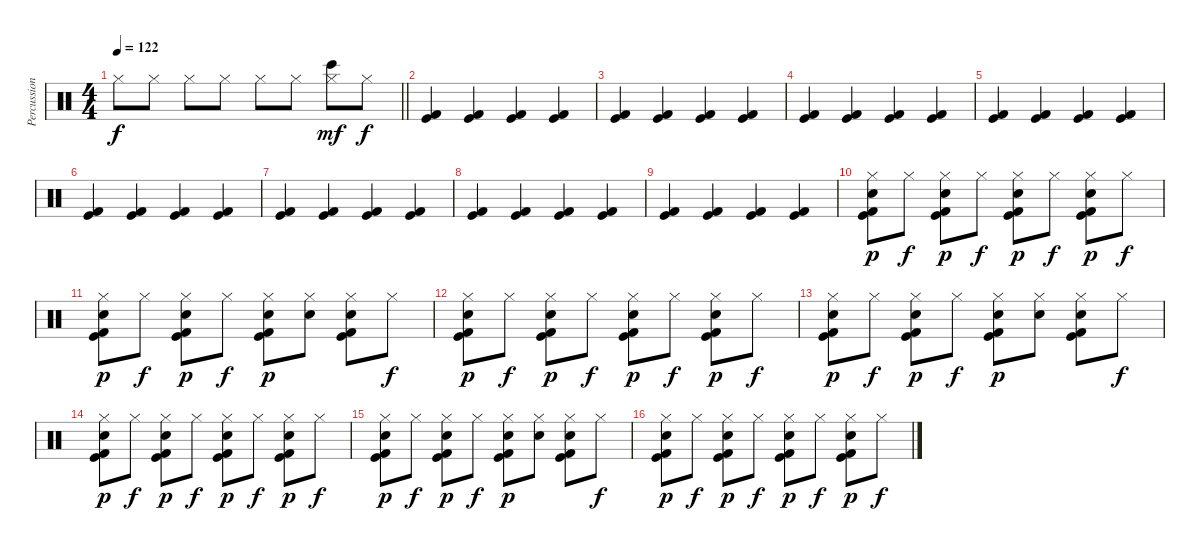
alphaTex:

\track ("Percussion" "Percussion") {instrument percussion}
\staff {score}
\articulation defaults
\ts (4 4)
\tempo 122
\clef neutral
\barLineRight lightlight
\ks c "Hi-Hat (closed)".8{dy f} "Hi-Hat (closed)".8 "Hi-Hat (closed)".8 "Hi-Hat (closed)".8 "Hi-Hat (closed)".8 "Hi-Hat (closed)".8
("Hi-Hat (closed)" "Bongo High (hit)").8{dy mf} "Hi-Hat (closed)".8{dy f} |
\section ("" "")
("Kick (hit)" "Kick (hit) 2").4{volume 7} ("Kick (hit)" "Kick (hit) 2").4 ("Kick (hit)" "Kick (hit) 2").4 ("Kick (hit)" "Kick (hit) 2").4 |
("Kick (hit)" "Kick (hit) 2").4 ("Kick (hit)" "Kick (hit) 2").4 ("Kick (hit)" "Kick (hit) 2").4 ("Kick (hit)" "Kick (hit) 2").4 |
("Kick (hit)" "Kick (hit) 2").4 ("Kick (hit)" "Kick (hit) 2").4 ("Kick (hit)" "Kick (hit) 2").4 ("Kick (hit)" "Kick (hit) 2").4 |
("Kick (hit)" "Kick (hit) 2").4 ("Kick (hit)" "Kick (hit) 2").4 ("Kick (hit)" "Kick (hit) 2").4 ("Kick (hit)" "Kick (hit) 2").4 |
("Kick (hit)" "Kick (hit) 2").4 ("Kick (hit)" "Kick (hit) 2").4 ("Kick (hit)" "Kick (hit) 2").4 ("Kick (hit)" "Kick (hit) 2").4 |
("Kick (hit)" "Kick (hit) 2").4 ("Kick (hit)" "Kick (hit) 2").4 ("Kick (hit)" "Kick (hit) 2").4 ("Kick (hit)" "Kick (hit) 2").4 |
("Kick (hit)" "Kick (hit) 2").4 ("Kick (hit)" "Kick (hit) 2").4 ("Kick (hit)" "Kick (hit) 2").4 ("Kick (hit)" "Kick (hit) 2").4 |
("Kick (hit)" "Kick (hit) 2").4 ("Kick (hit)" "Kick (hit) 2").4 ("Kick (hit)" "Kick (hit) 2").4 ("Kick (hit)" "Kick (hit) 2").4 |
("Hi-Hat (closed)" "Hand Clap (hit)" "Kick (hit)" "Kick (hit) 2").8{dy p} "Hi-Hat (closed)".8{dy f} ("Hi-Hat (closed)" "Hand Clap (hit)" "Kick (hit)" "Kick (hit) 2").8{dy p} "Hi-Hat (closed)".8{dy f} ("Hi-Hat (closed)" "Hand Clap (hit)" "Kick (hit)" "Kick (hit) 2").8{dy p} "Hi-Hat (closed)".8{dy f} ("Hi-Hat (closed)" "Hand Clap (hit)" "Kick (hit)" "Kick (hit) 2").8{dy p} "Hi-Hat (closed)".8{dy f} |
("Hi-Hat (closed)" "Hand Clap (hit)" "Kick (hit)" "Kick (hit) 2").8{dy p} "Hi-Hat (closed)".8{dy f} ("Hi-Hat (closed)" "Hand Clap (hit)" "Kick (hit)" "Kick (hit) 2").8{dy p} "Hi-Hat (closed)".8{dy f} ("Hi-Hat (closed)" "Hand Clap (hit)" "Kick (hit)" "Kick (hit) 2").8{dy p} ("Hi-Hat (closed)" "Hand Clap (hit)").8 ("Hi-Hat (closed)" "Hand Clap (hit)" "Kick (hit)" "Kick (hit) 2").8 "Hi-Hat (closed)".8{dy f} |
("Hi-Hat (closed)" "Hand Clap (hit)" "Kick (hit)" "Kick (hit) 2").8{dy p} "Hi-Hat (closed)".8{dy f} ("Hi-Hat (closed)" "Hand Clap (hit)" "Kick (hit)" "Kick (hit) 2").8{dy p} "Hi-Hat (closed)".8{dy f} ("Hi-Hat (closed)" "Hand Clap (hit)" "Kick (hit)" "Kick (hit) 2").8{dy p} "Hi-Hat (closed)".8{dy f} ("Hi-Hat (closed)" "Hand Clap (hit)" "Kick (hit)" "Kick (hit) 2").8{dy p} "Hi-Hat (closed)".8{dy f} |
("Hi-Hat (closed)" "Hand Clap (hit)" "Kick (hit)" "Kick (hit) 2").8{dy p} "Hi-Hat (closed)".8{dy f} ("Hi-Hat (closed)" "Hand Clap (hit)" "Kick (hit)" "Kick (hit) 2").8{dy p} "Hi-Hat (closed)".8{dy f} ("Hi-Hat (closed)" "Hand Clap (hit)" "Kick (hit)" "Kick (hit) 2").8{dy p} ("Hi-Hat (closed)" "Hand Clap (hit)").8 ("Hi-Hat (closed)" "Hand Clap (hit)" "Kick (hit)" "Kick (hit) 2").8 "Hi-Hat (closed)".8{dy f} |
("Hi-Hat (closed)" "Hand Clap (hit)" "Kick (hit)" "Kick (hit) 2").8{dy p} "Hi-Hat (closed)".8{dy f} ("Hi-Hat (closed)" "Hand Clap (hit)" "Kick (hit)" "Kick (hit) 2").8{dy p} "Hi-Hat (closed)".8{dy f} ("Hi-Hat (closed)" "Hand Clap (hit)" "Kick (hit)" "Kick (hit) 2").8{dy p} "Hi-Hat (closed)".8{dy f} ("Hi-Hat (closed)" "Hand Clap (hit)" "Kick (hit)" "Kick (hit) 2").8{dy p} "Hi-Hat (closed)".8{dy f} |
("Hi-Hat (closed)" "Hand Clap (hit)" "Kick (hit)" "Kick (hit) 2").8{dy p} "Hi-Hat (closed)".8{dy f} ("Hi-Hat (closed)" "Hand Clap (hit)" "Kick (hit)" "Kick (hit) 2").8{dy p} "Hi-Hat (closed)".8{dy f} ("Hi-Hat (closed)" "Hand Clap (hit)" "Kick (hit)" "Kick (hit) 2").8{dy p} ("Hi-Hat (closed)" "Hand Clap (hit)").8 ("Hi-Hat (closed)" "Hand Clap (hit)" "Kick (hit)" "Kick (hit) 2").8 "Hi-Hat (closed)".8{dy f} |
("Hi-Hat (closed)" "Hand Clap (hit)" "Kick (hit)" "Kick (hit) 2").8{dy p} "Hi-Hat (closed)".8{dy f} ("Hi-Hat (closed)" "Hand Clap (hit)" "Kick (hit)" "Kick (hit) 2").8{dy p} "Hi-Hat (closed)".8{dy f} ("Hi-Hat (closed)" "Hand Clap (hit)" "Kick (hit)" "Kick (hit) 2").8{dy p} "Hi-Hat (closed)".8{dy f} ("Hi-Hat (closed)" "Hand Clap (hit)" "Kick (hit)" "Kick (hit) 2").8{dy p} "Hi-Hat (closed)".8{dy f}
